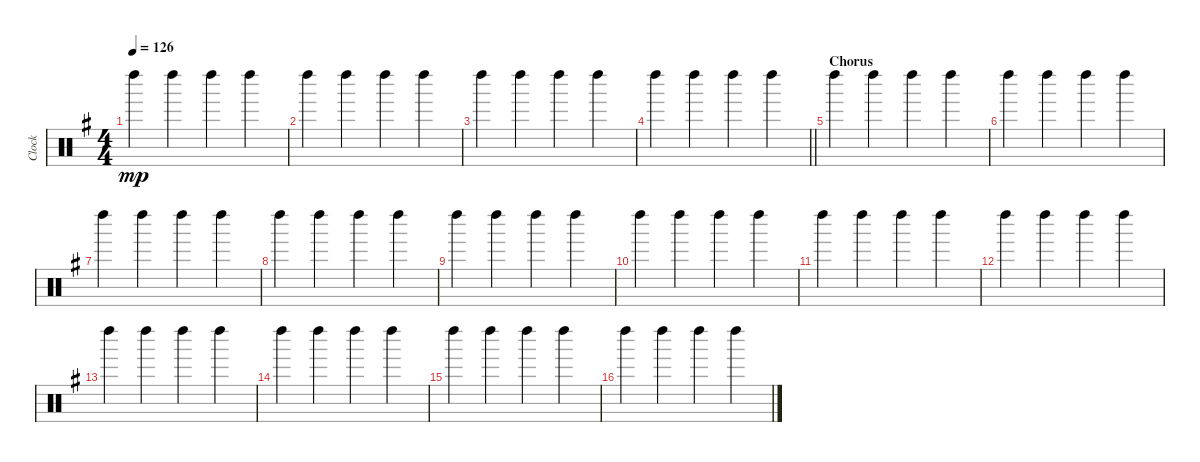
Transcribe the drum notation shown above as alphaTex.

\track ("Clock" "Clock") {instrument percussion}
\staff {score}
\articulation defaults
\ts (4 4)
\tempo 126
\clef neutral
\ks eminor "Left Maraca (hit)".4{dy mp} "Left Maraca (hit)".4 "Left Maraca (hit)".4 "Left Maraca (hit)".4
|
"Left Maraca (hit)".4 "Left Maraca (hit)".4 "Left Maraca (hit)".4 "Left Maraca (hit)".4 |
"Left Maraca (hit)".4 "Left Maraca (hit)".4 "Left Maraca (hit)".4 "Left Maraca (hit)".4 |
\barLineRight lightlight "Left Maraca (hit)".4 "Left Maraca (hit)".4 "Left Maraca (hit)".4 "Left Maraca (hit)".4
|
\section ("" "Chorus")
"Left Maraca (hit)".4 "Left Maraca (hit)".4 "Left Maraca (hit)".4 "Left Maraca (hit)".4 |
"Left Maraca (hit)".4 "Left Maraca (hit)".4 "Left Maraca (hit)".4 "Left Maraca (hit)".4 |
"Left Maraca (hit)".4 "Left Maraca (hit)".4 "Left Maraca (hit)".4 "Left Maraca (hit)".4 |
"Left Maraca (hit)".4 "Left Maraca (hit)".4 "Left Maraca (hit)".4 "Left Maraca (hit)".4 |
"Left Maraca (hit)".4 "Left Maraca (hit)".4 "Left Maraca (hit)".4 "Left Maraca (hit)".4 |
"Left Maraca (hit)".4 "Left Maraca (hit)".4 "Left Maraca (hit)".4 "Left Maraca (hit)".4 |
"Left Maraca (hit)".4 "Left Maraca (hit)".4 "Left Maraca (hit)".4 "Left Maraca (hit)".4 |
"Left Maraca (hit)".4 "Left Maraca (hit)".4 "Left Maraca (hit)".4 "Left Maraca (hit)".4 |
"Left Maraca (hit)".4 "Left Maraca (hit)".4 "Left Maraca (hit)".4 "Left Maraca (hit)".4 |
"Left Maraca (hit)".4 "Left Maraca (hit)".4 "Left Maraca (hit)".4 "Left Maraca (hit)".4 |
"Left Maraca (hit)".4 "Left Maraca (hit)".4 "Left Maraca (hit)".4 "Left Maraca (hit)".4 |
"Left Maraca (hit)".4 "Left Maraca (hit)".4 "Left Maraca (hit)".4 "Left Maraca (hit)".4
